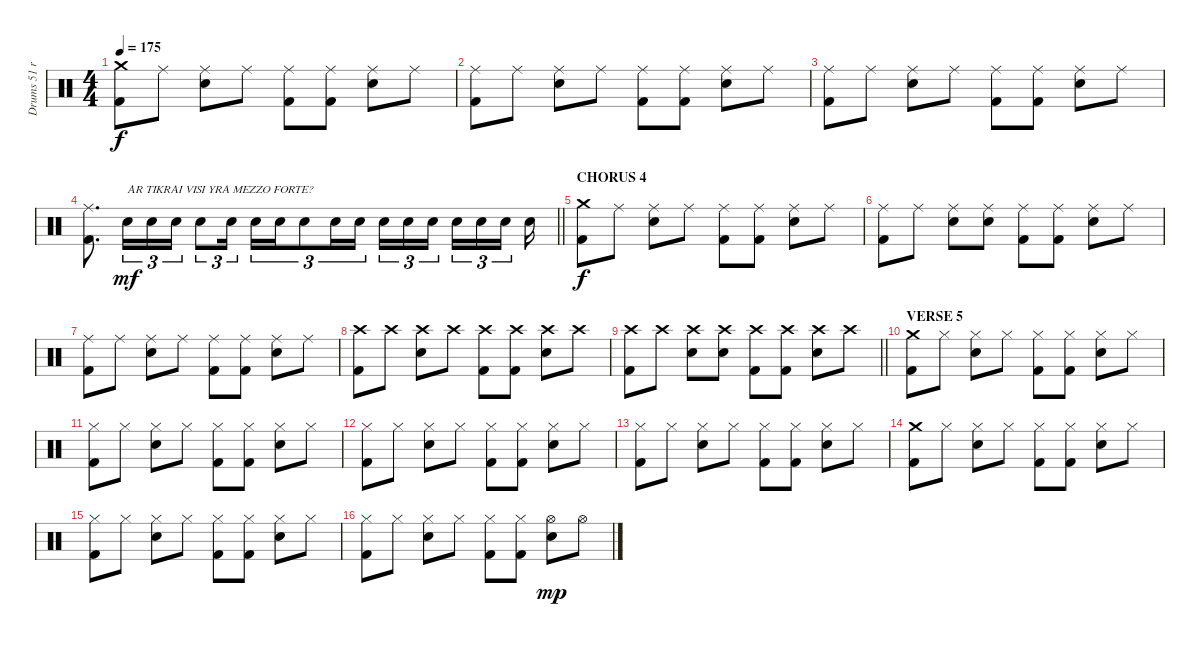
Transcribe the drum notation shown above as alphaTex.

\track ("Drums 51 ride" "Drums 51 r") {instrument percussion}
\staff {score}
\articulation defaults
\ts (4 4)
\tempo 175
\clef neutral
\ks c
("Crash medium (hit)" "Kick (hit) 2").8{dy f} "Ride (middle)".8 ("Ride (middle)" "Snare (hit) 2").8 "Ride (middle)".8 ("Ride (middle)" "Kick (hit) 2").8 ("Ride (middle)" "Kick (hit) 2").8 ("Ride (middle)" "Snare (hit) 2").8 "Ride (middle)".8 |
("Ride (middle)" "Kick (hit) 2").8 "Ride (middle)".8 ("Ride (middle)" "Snare (hit) 2").8 "Ride (middle)".8 ("Ride (middle)" "Kick (hit) 2").8 ("Ride (middle)" "Kick (hit) 2").8 ("Ride (middle)" "Snare (hit) 2").8 "Ride (middle)".8 |
("Ride (middle)" "Kick (hit) 2").8 "Ride (middle)".8 ("Ride (middle)" "Snare (hit) 2").8 "Ride (middle)".8 ("Ride (middle)" "Kick (hit) 2").8 ("Ride (middle)" "Kick (hit) 2").8 ("Ride (middle)" "Snare (hit) 2").8 "Ride (middle)".8 |
\barLineRight lightlight
("Ride (middle)" "Kick (hit) 2").8{d} "Snare (hit) 2".16{tu (3 2) txt "AR TIKRAI VISI YRA MEZZO FORTE?" dy mf} "Snare (hit) 2".16{tu (3 2)} "Snare (hit) 2".16{tu (3 2)} "Snare (hit) 2".8{tu (3 2)} "Snare (hit) 2".16{tu (3 2) beam splitsecondary} "Snare (hit) 2".16{tu (3 2)} "Snare (hit) 2".16{tu (3 2)} "Snare (hit) 2".8{tu (3 2)} "Snare (hit) 2".16{tu (3 2)} "Snare (hit) 2".16{tu (3 2) beam splitsecondary} "Snare (hit) 2".16{tu (3 2)} "Snare (hit) 2".16{tu (3 2)} "Snare (hit) 2".16{tu (3 2) beam splitsecondary} "Snare (hit) 2".16{tu (3 2)} "Snare (hit) 2".16{tu (3 2)} "Snare (hit) 2".16{tu (3 2) beam splitsecondary} "Snare (hit) 2".16 |
\section ("" "CHORUS 4")
("Crash medium (hit)" "Kick (hit) 2").8{dy f} "Ride (middle)".8 ("Ride (middle)" "Snare (hit) 2").8 "Ride (middle)".8 ("Ride (middle)" "Kick (hit) 2").8 ("Ride (middle)" "Kick (hit) 2").8 ("Ride (middle)" "Snare (hit) 2").8 "Ride (middle)".8 |
("Ride (middle)" "Kick (hit) 2").8 "Ride (middle)".8 ("Ride (middle)" "Snare (hit) 2").8 ("Ride (middle)" "Snare (hit) 2").8 ("Ride (middle)" "Kick (hit) 2").8 ("Ride (middle)" "Kick (hit) 2").8 ("Ride (middle)" "Snare (hit) 2").8 "Ride (middle)".8 |
("Ride (middle)" "Kick (hit) 2").8 "Ride (middle)".8 ("Ride (middle)" "Snare (hit) 2").8 "Ride (middle)".8 ("Ride (middle)" "Kick (hit) 2").8 ("Ride (middle)" "Kick (hit) 2").8 ("Ride (middle)" "Snare (hit) 2").8 "Ride (middle)".8 |
("Crash high (hit)" "Kick (hit) 2").8 "Crash high (hit)".8 ("Crash high (hit)" "Snare (hit) 2").8 "Crash high (hit)".8 ("Crash high (hit)" "Kick (hit) 2").8 ("Crash high (hit)" "Kick (hit) 2").8 ("Crash high (hit)" "Snare (hit) 2").8 "Crash high (hit)".8 |
\barLineRight lightlight
("Crash high (hit)" "Kick (hit) 2").8 "Crash high (hit)".8 ("Crash high (hit)" "Snare (hit) 2").8 ("Crash high (hit)" "Snare (hit) 2").8 ("Crash high (hit)" "Kick (hit) 2").8 ("Crash high (hit)" "Kick (hit) 2").8 ("Crash high (hit)" "Snare (hit) 2").8 "Crash high (hit)".8 |
\section ("" "VERSE 5")
("Crash medium (hit)" "Kick (hit) 2").8 "Hi-Hat (closed)".8 ("Hi-Hat (closed)" "Snare (hit) 2").8 "Hi-Hat (closed)".8 ("Hi-Hat (closed)" "Kick (hit) 2").8 ("Hi-Hat (closed)" "Kick (hit) 2").8 ("Hi-Hat (closed)" "Snare (hit) 2").8 "Hi-Hat (closed)".8 |
("Hi-Hat (closed)" "Kick (hit) 2").8 "Hi-Hat (closed)".8 ("Hi-Hat (closed)" "Snare (hit) 2").8 "Hi-Hat (closed)".8 ("Hi-Hat (closed)" "Kick (hit) 2").8 ("Hi-Hat (closed)" "Kick (hit) 2").8 ("Hi-Hat (closed)" "Snare (hit) 2").8 "Hi-Hat (closed)".8 |
("Hi-Hat (closed)" "Kick (hit) 2").8 "Hi-Hat (closed)".8 ("Hi-Hat (closed)" "Snare (hit) 2").8 "Hi-Hat (closed)".8 ("Hi-Hat (closed)" "Kick (hit) 2").8 ("Hi-Hat (closed)" "Kick (hit) 2").8 ("Hi-Hat (closed)" "Snare (hit) 2").8 "Hi-Hat (closed)".8 |
("Hi-Hat (closed)" "Kick (hit) 2").8 "Hi-Hat (closed)".8 ("Hi-Hat (closed)" "Snare (hit) 2").8 "Hi-Hat (closed)".8 ("Hi-Hat (closed)" "Kick (hit) 2").8 ("Hi-Hat (closed)" "Kick (hit) 2").8 ("Hi-Hat (closed)" "Snare (hit) 2").8 "Hi-Hat (closed)".8 |
("Crash medium (hit)" "Kick (hit) 2").8 "Hi-Hat (closed)".8 ("Hi-Hat (closed)" "Snare (hit) 2").8 "Hi-Hat (closed)".8 ("Hi-Hat (closed)" "Kick (hit) 2").8 ("Hi-Hat (closed)" "Kick (hit) 2").8 ("Hi-Hat (closed)" "Snare (hit) 2").8 "Hi-Hat (closed)".8 |
("Hi-Hat (closed)" "Kick (hit) 2").8 "Hi-Hat (closed)".8 ("Hi-Hat (closed)" "Snare (hit) 2").8 "Hi-Hat (closed)".8 ("Hi-Hat (closed)" "Kick (hit) 2").8 ("Hi-Hat (closed)" "Kick (hit) 2").8 ("Hi-Hat (closed)" "Snare (hit) 2").8 "Hi-Hat (closed)".8 |
("Hi-Hat (closed)" "Kick (hit) 2").8 "Hi-Hat (closed)".8 ("Hi-Hat (closed)" "Snare (hit) 2").8 "Hi-Hat (closed)".8 ("Hi-Hat (closed)" "Kick (hit) 2").8 ("Hi-Hat (closed)" "Kick (hit) 2").8 ("Hi-Hat (open)" "Snare (hit) 2").8{dy mp} "Hi-Hat (open)".8
